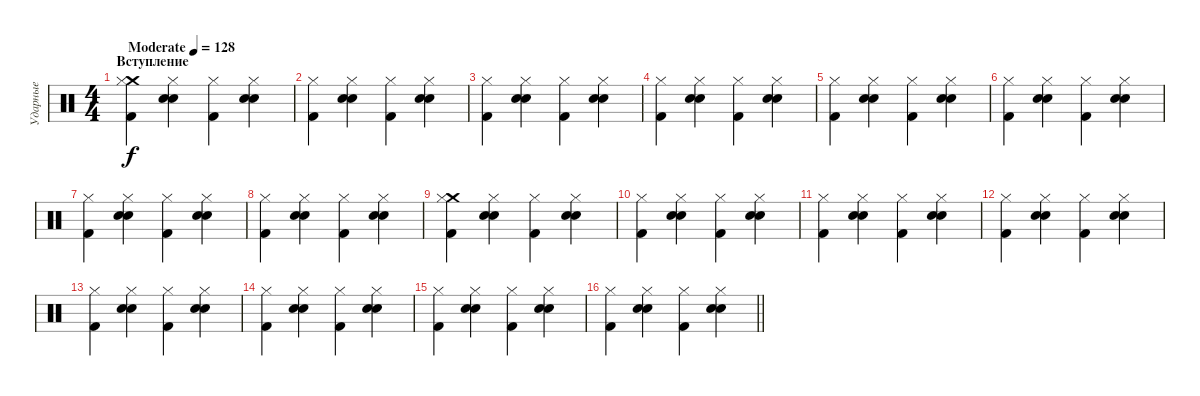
\track ("Ударные" "Ударные") {instrument percussion}
\staff {score}
\articulation defaults
\ts (4 4)
\section ("" "Вступление")
\tempo (128 "Moderate")
\clef neutral
\ks c
("Crash medium (hit)" "Hi-Hat (closed)" "Kick (hit) 2").4{dy f} ("Electric Snare (hit)" "Snare (hit) 2" "Hi-Hat (closed)").4 ("Hi-Hat (closed)" "Kick (hit) 2").4 ("Electric Snare (hit)" "Snare (hit) 2" "Hi-Hat (closed)").4 |
("Hi-Hat (closed)" "Kick (hit) 2").4 ("Electric Snare (hit)" "Snare (hit) 2" "Hi-Hat (closed)").4 ("Hi-Hat (closed)" "Kick (hit) 2").4 ("Electric Snare (hit)" "Snare (hit) 2" "Hi-Hat (closed)").4 |
("Hi-Hat (closed)" "Kick (hit) 2").4 ("Electric Snare (hit)" "Snare (hit) 2" "Hi-Hat (closed)").4 ("Hi-Hat (closed)" "Kick (hit) 2").4 ("Electric Snare (hit)" "Snare (hit) 2" "Hi-Hat (closed)").4 |
("Hi-Hat (closed)" "Kick (hit) 2").4 ("Electric Snare (hit)" "Snare (hit) 2" "Hi-Hat (closed)").4 ("Hi-Hat (closed)" "Kick (hit) 2").4 ("Electric Snare (hit)" "Snare (hit) 2" "Hi-Hat (closed)").4 |
("Hi-Hat (closed)" "Kick (hit) 2").4 ("Electric Snare (hit)" "Snare (hit) 2" "Hi-Hat (closed)").4 ("Hi-Hat (closed)" "Kick (hit) 2").4 ("Electric Snare (hit)" "Snare (hit) 2" "Hi-Hat (closed)").4 |
("Hi-Hat (closed)" "Kick (hit) 2").4 ("Electric Snare (hit)" "Snare (hit) 2" "Hi-Hat (closed)").4 ("Hi-Hat (closed)" "Kick (hit) 2").4 ("Electric Snare (hit)" "Snare (hit) 2" "Hi-Hat (closed)").4 |
("Hi-Hat (closed)" "Kick (hit) 2").4 ("Electric Snare (hit)" "Snare (hit) 2" "Hi-Hat (closed)").4 ("Hi-Hat (closed)" "Kick (hit) 2").4 ("Electric Snare (hit)" "Snare (hit) 2" "Hi-Hat (closed)").4 |
("Hi-Hat (closed)" "Kick (hit) 2").4 ("Electric Snare (hit)" "Snare (hit) 2" "Hi-Hat (closed)").4 ("Hi-Hat (closed)" "Kick (hit) 2").4 ("Electric Snare (hit)" "Snare (hit) 2" "Hi-Hat (closed)").4 |
("Crash medium (hit)" "Hi-Hat (closed)" "Kick (hit) 2").4 ("Electric Snare (hit)" "Snare (hit) 2" "Hi-Hat (closed)").4 ("Hi-Hat (closed)" "Kick (hit) 2").4 ("Electric Snare (hit)" "Snare (hit) 2" "Hi-Hat (closed)").4 |
("Hi-Hat (closed)" "Kick (hit) 2").4 ("Electric Snare (hit)" "Snare (hit) 2" "Hi-Hat (closed)").4 ("Hi-Hat (closed)" "Kick (hit) 2").4 ("Electric Snare (hit)" "Snare (hit) 2" "Hi-Hat (closed)").4 |
("Hi-Hat (closed)" "Kick (hit) 2").4 ("Electric Snare (hit)" "Snare (hit) 2" "Hi-Hat (closed)").4 ("Hi-Hat (closed)" "Kick (hit) 2").4 ("Electric Snare (hit)" "Snare (hit) 2" "Hi-Hat (closed)").4 |
("Hi-Hat (closed)" "Kick (hit) 2").4 ("Electric Snare (hit)" "Snare (hit) 2" "Hi-Hat (closed)").4 ("Hi-Hat (closed)" "Kick (hit) 2").4 ("Electric Snare (hit)" "Snare (hit) 2" "Hi-Hat (closed)").4 |
("Hi-Hat (closed)" "Kick (hit) 2").4 ("Electric Snare (hit)" "Snare (hit) 2" "Hi-Hat (closed)").4 ("Hi-Hat (closed)" "Kick (hit) 2").4 ("Electric Snare (hit)" "Snare (hit) 2" "Hi-Hat (closed)").4 |
("Hi-Hat (closed)" "Kick (hit) 2").4 ("Electric Snare (hit)" "Snare (hit) 2" "Hi-Hat (closed)").4 ("Hi-Hat (closed)" "Kick (hit) 2").4 ("Electric Snare (hit)" "Snare (hit) 2" "Hi-Hat (closed)").4 |
("Hi-Hat (closed)" "Kick (hit) 2").4 ("Electric Snare (hit)" "Snare (hit) 2" "Hi-Hat (closed)").4 ("Hi-Hat (closed)" "Kick (hit) 2").4 ("Electric Snare (hit)" "Snare (hit) 2" "Hi-Hat (closed)").4 |
\barLineRight lightlight
("Hi-Hat (closed)" "Kick (hit) 2").4 ("Electric Snare (hit)" "Snare (hit) 2" "Hi-Hat (closed)").4 ("Hi-Hat (closed)" "Kick (hit) 2").4 ("Electric Snare (hit)" "Snare (hit) 2" "Hi-Hat (closed)").4
